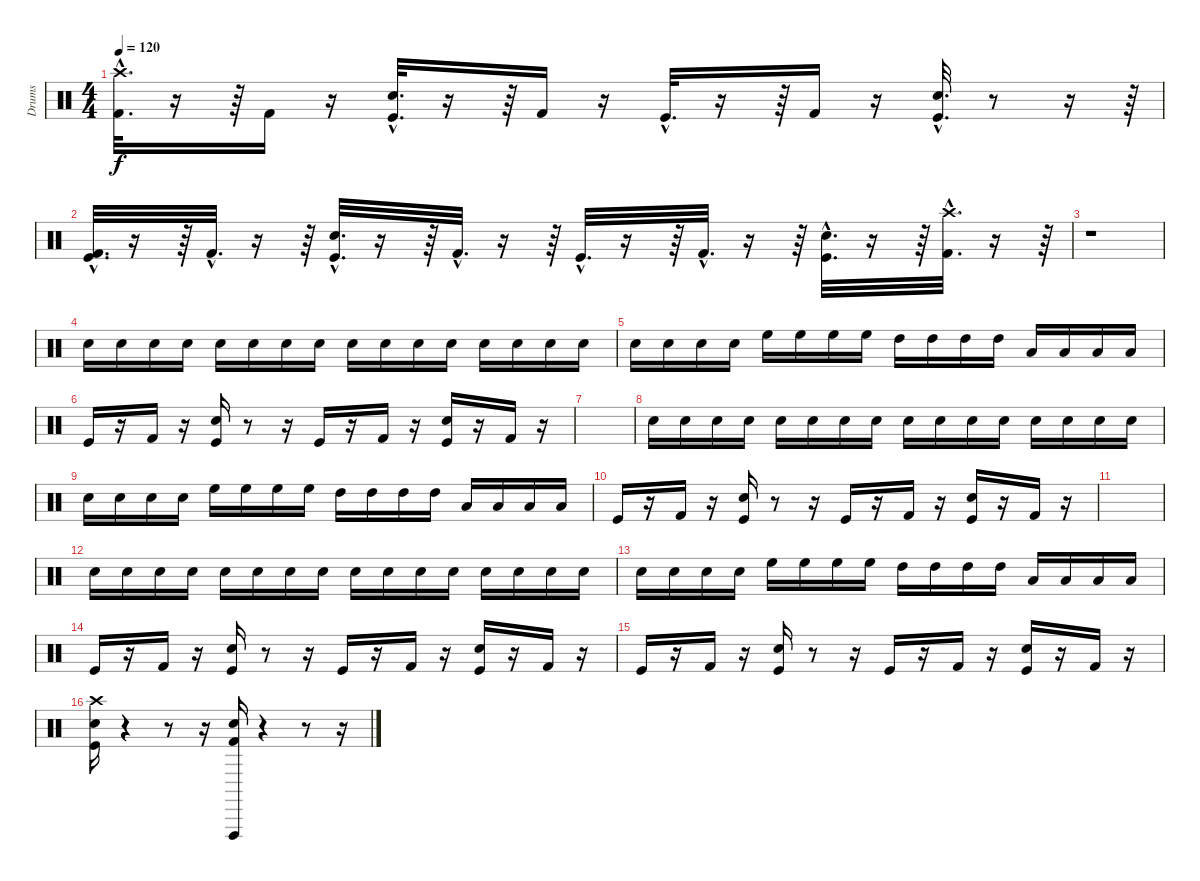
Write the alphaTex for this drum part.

\track ("Drums" "Drums") {instrument percussion}
\staff {score}
\articulation defaults
\ts (4 4)
\tempo 120
\clef neutral
\ks c
("Kick (hit) 2"{hac} "Crash high (hit)"{hac}).32{d dy f} r.16 r.64 "Kick (hit) 2".16 r.16 ("Kick (hit)"{hac} "Snare (hit) 2"{hac}).32{d} r.16 r.64 "Kick (hit) 2".16 r.16 "Kick (hit)"{hac}.32{d} r.16 r.64 "Kick (hit) 2".16 r.16 ("Kick (hit)"{hac} "Snare (hit) 2"{hac}).32{d} r.8 r.16 r.64 |
("Kick (hit)"{hac} "Kick (hit) 2"{hac}).32{d} r.16 r.64 "Kick (hit) 2"{hac}.32{d} r.16 r.64 ("Snare (hit) 2"{hac} "Kick (hit)"{hac}).32{d} r.16 r.64 "Kick (hit) 2"{hac}.32{d} r.16 r.64 "Kick (hit)"{hac}.32{d} r.16 r.64 "Kick (hit) 2"{hac}.32{d} r.16 r.64 ("Snare (hit) 2"{hac} "Kick (hit)"{hac}).32{d} r.16 r.64 ("Kick (hit) 2"{hac} "Crash high (hit)"{hac}).32{d} r.16 r.64 |
r.1 |
"Snare (hit) 2".16 "Snare (hit) 2".16 "Snare (hit) 2".16 "Snare (hit) 2".16 "Snare (hit) 2".16 "Snare (hit) 2".16 "Snare (hit) 2".16 "Snare (hit) 2".16 "Snare (hit) 2".16 "Snare (hit) 2".16 "Snare (hit) 2".16 "Snare (hit) 2".16 "Snare (hit) 2".16 "Snare (hit) 2".16 "Snare (hit) 2".16 "Snare (hit) 2".16 |
"Snare (hit) 2".16 "Snare (hit) 2".16 "Snare (hit) 2".16 "Snare (hit) 2".16 "High Floor Tom (hit)".16 "High Floor Tom (hit)".16 "High Floor Tom (hit)".16 "High Floor Tom (hit)".16 "High Tom (hit)".16 "High Tom (hit)".16 "High Tom (hit)".16 "High Tom (hit)".16 "Low Tom (hit)".16 "Low Tom (hit)".16 "Low Tom (hit)".16 "Low Tom (hit)".16 |
"Kick (hit)".16 r.16 "Kick (hit) 2".16 r.16 ("Kick (hit)" "Snare (hit) 2").16 r.8 r.16 "Kick (hit)".16 r.16 "Kick (hit) 2".16 r.16 ("Kick (hit)" "Snare (hit) 2").16 r.16 "Kick (hit) 2".16 r.16 |
|
"Snare (hit) 2".16 "Snare (hit) 2".16 "Snare (hit) 2".16 "Snare (hit) 2".16 "Snare (hit) 2".16 "Snare (hit) 2".16 "Snare (hit) 2".16 "Snare (hit) 2".16 "Snare (hit) 2".16 "Snare (hit) 2".16 "Snare (hit) 2".16 "Snare (hit) 2".16 "Snare (hit) 2".16 "Snare (hit) 2".16 "Snare (hit) 2".16 "Snare (hit) 2".16 |
"Snare (hit) 2".16 "Snare (hit) 2".16 "Snare (hit) 2".16 "Snare (hit) 2".16 "High Floor Tom (hit)".16 "High Floor Tom (hit)".16 "High Floor Tom (hit)".16 "High Floor Tom (hit)".16 "High Tom (hit)".16 "High Tom (hit)".16 "High Tom (hit)".16 "High Tom (hit)".16 "Low Tom (hit)".16 "Low Tom (hit)".16 "Low Tom (hit)".16 "Low Tom (hit)".16 |
"Kick (hit)".16 r.16 "Kick (hit) 2".16 r.16 ("Kick (hit)" "Snare (hit) 2").16 r.8 r.16 "Kick (hit)".16 r.16 "Kick (hit) 2".16 r.16 ("Kick (hit)" "Snare (hit) 2").16 r.16 "Kick (hit) 2".16 r.16 |
|
"Snare (hit) 2".16 "Snare (hit) 2".16 "Snare (hit) 2".16 "Snare (hit) 2".16 "Snare (hit) 2".16 "Snare (hit) 2".16 "Snare (hit) 2".16 "Snare (hit) 2".16 "Snare (hit) 2".16 "Snare (hit) 2".16 "Snare (hit) 2".16 "Snare (hit) 2".16 "Snare (hit) 2".16 "Snare (hit) 2".16 "Snare (hit) 2".16 "Snare (hit) 2".16 |
"Snare (hit) 2".16 "Snare (hit) 2".16 "Snare (hit) 2".16 "Snare (hit) 2".16 "High Floor Tom (hit)".16 "High Floor Tom (hit)".16 "High Floor Tom (hit)".16 "High Floor Tom (hit)".16 "High Tom (hit)".16 "High Tom (hit)".16 "High Tom (hit)".16 "High Tom (hit)".16 "Low Tom (hit)".16 "Low Tom (hit)".16 "Low Tom (hit)".16 "Low Tom (hit)".16 |
"Kick (hit)".16 r.16 "Kick (hit) 2".16 r.16 ("Kick (hit)" "Snare (hit) 2").16 r.8 r.16 "Kick (hit)".16 r.16 "Kick (hit) 2".16 r.16 ("Kick (hit)" "Snare (hit) 2").16 r.16 "Kick (hit) 2".16 r.16 |
"Kick (hit)".16 r.16 "Kick (hit) 2".16 r.16 ("Kick (hit)" "Snare (hit) 2").16 r.8 r.16 "Kick (hit)".16 r.16 "Kick (hit) 2".16 r.16 ("Kick (hit)" "Snare (hit) 2").16 r.16 "Kick (hit) 2".16 r.16 |
("Crash high (hit)" "Kick (hit)" "Snare (hit) 2").16 r.4 r.8 r.16 ("Vibraslap (hit)" "Kick (hit) 2" "Snare (hit) 2").16 r.4 r.8 r.16
